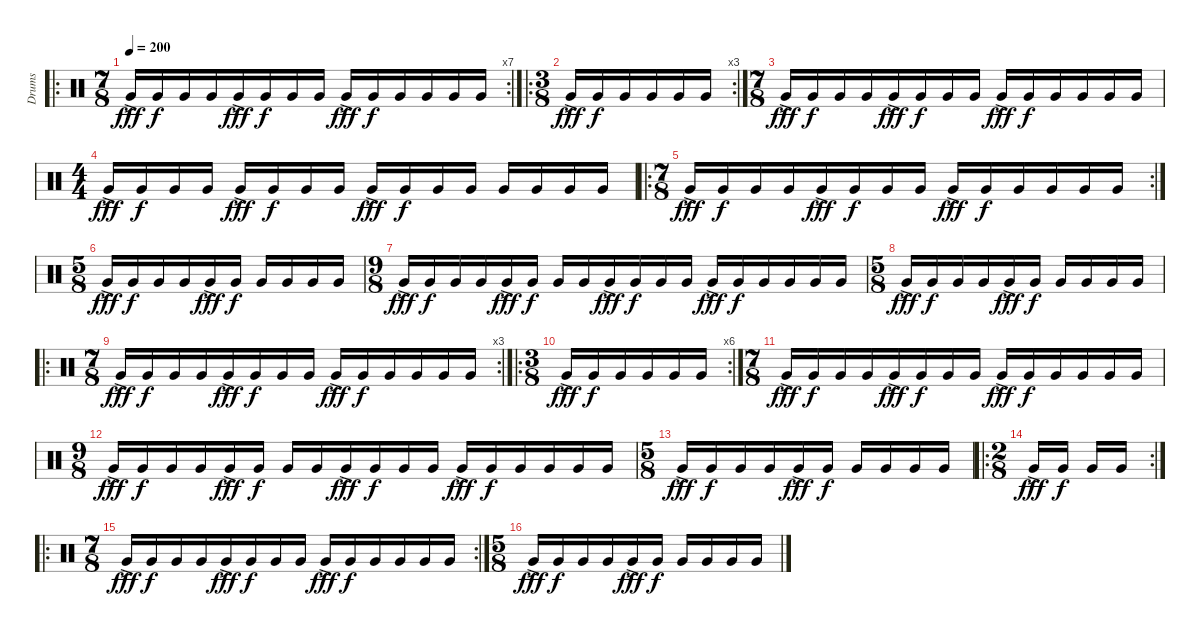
\track ("Drums" "Drums") {instrument percussion}
\staff {score}
\articulation defaults
\ro
\rc 7
\ts (7 8)
\tempo 200
\clef neutral
\ks c "Very Low Tom (hit)"{ac}.16{dy fff} "Very Low Tom (hit)".16{dy f} "Very Low Tom (hit)".16 "Very Low Tom (hit)".16 "Very Low Tom (hit)"{ac}.16{dy fff} "Very Low Tom (hit)".16{dy f} "Very Low Tom (hit)".16 "Very Low Tom (hit)".16 "Very Low Tom (hit)"{ac}.16{dy fff} "Very Low Tom (hit)".16{dy f} "Very Low Tom (hit)".16 "Very Low Tom (hit)".16 "Very Low Tom (hit)".16 "Very Low Tom (hit)".16
|
\ro
\rc 3
\ts (3 8)
"Very Low Tom (hit)"{ac}.16{dy fff} "Very Low Tom (hit)".16{dy f} "Very Low Tom (hit)".16 "Very Low Tom (hit)".16 "Very Low Tom (hit)".16 "Very Low Tom (hit)".16 |
\ts (7 8)
"Very Low Tom (hit)"{ac}.16{dy fff} "Very Low Tom (hit)".16{dy f} "Very Low Tom (hit)".16 "Very Low Tom (hit)".16 "Very Low Tom (hit)"{ac}.16{dy fff} "Very Low Tom (hit)".16{dy f} "Very Low Tom (hit)".16 "Very Low Tom (hit)".16 "Very Low Tom (hit)"{ac}.16{dy fff} "Very Low Tom (hit)".16{dy f} "Very Low Tom (hit)".16 "Very Low Tom (hit)".16 "Very Low Tom (hit)".16 "Very Low Tom (hit)".16 |
\ts (4 4)
"Very Low Tom (hit)"{ac}.16{dy fff} "Very Low Tom (hit)".16{dy f} "Very Low Tom (hit)".16 "Very Low Tom (hit)".16 "Very Low Tom (hit)"{ac}.16{dy fff} "Very Low Tom (hit)".16{dy f} "Very Low Tom (hit)".16 "Very Low Tom (hit)".16 "Very Low Tom (hit)"{ac}.16{dy fff} "Very Low Tom (hit)".16{dy f} "Very Low Tom (hit)".16 "Very Low Tom (hit)".16 "Very Low Tom (hit)".16 "Very Low Tom (hit)".16 "Very Low Tom (hit)".16 "Very Low Tom (hit)".16 |
\ro
\rc 2
\ts (7 8)
"Very Low Tom (hit)"{ac}.16{dy fff} "Very Low Tom (hit)".16{dy f} "Very Low Tom (hit)".16 "Very Low Tom (hit)".16 "Very Low Tom (hit)"{ac}.16{dy fff} "Very Low Tom (hit)".16{dy f} "Very Low Tom (hit)".16 "Very Low Tom (hit)".16 "Very Low Tom (hit)"{ac}.16{dy fff} "Very Low Tom (hit)".16{dy f} "Very Low Tom (hit)".16 "Very Low Tom (hit)".16 "Very Low Tom (hit)".16 "Very Low Tom (hit)".16 |
\ts (5 8)
"Very Low Tom (hit)"{ac}.16{dy fff} "Very Low Tom (hit)".16{dy f} "Very Low Tom (hit)".16 "Very Low Tom (hit)".16 "Very Low Tom (hit)"{ac}.16{dy fff} "Very Low Tom (hit)".16{dy f} "Very Low Tom (hit)".16 "Very Low Tom (hit)".16 "Very Low Tom (hit)".16 "Very Low Tom (hit)".16 |
\ts (9 8)
"Very Low Tom (hit)"{ac}.16{dy fff} "Very Low Tom (hit)".16{dy f} "Very Low Tom (hit)".16 "Very Low Tom (hit)".16 "Very Low Tom (hit)"{ac}.16{dy fff} "Very Low Tom (hit)".16{dy f} "Very Low Tom (hit)".16 "Very Low Tom (hit)".16 "Very Low Tom (hit)"{ac}.16{dy fff} "Very Low Tom (hit)".16{dy f} "Very Low Tom (hit)".16 "Very Low Tom (hit)".16 "Very Low Tom (hit)"{ac}.16{dy fff} "Very Low Tom (hit)".16{dy f} "Very Low Tom (hit)".16 "Very Low Tom (hit)".16 "Very Low Tom (hit)".16 "Very Low Tom (hit)".16 |
\ts (5 8)
"Very Low Tom (hit)"{ac}.16{dy fff} "Very Low Tom (hit)".16{dy f} "Very Low Tom (hit)".16 "Very Low Tom (hit)".16 "Very Low Tom (hit)"{ac}.16{dy fff} "Very Low Tom (hit)".16{dy f} "Very Low Tom (hit)".16 "Very Low Tom (hit)".16 "Very Low Tom (hit)".16 "Very Low Tom (hit)".16 |
\ro
\rc 3
\ts (7 8)
"Very Low Tom (hit)"{ac}.16{dy fff} "Very Low Tom (hit)".16{dy f} "Very Low Tom (hit)".16 "Very Low Tom (hit)".16 "Very Low Tom (hit)"{ac}.16{dy fff} "Very Low Tom (hit)".16{dy f} "Very Low Tom (hit)".16 "Very Low Tom (hit)".16 "Very Low Tom (hit)"{ac}.16{dy fff} "Very Low Tom (hit)".16{dy f} "Very Low Tom (hit)".16 "Very Low Tom (hit)".16 "Very Low Tom (hit)".16 "Very Low Tom (hit)".16 |
\ro
\rc 6
\ts (3 8)
"Very Low Tom (hit)"{ac}.16{dy fff} "Very Low Tom (hit)".16{dy f} "Very Low Tom (hit)".16 "Very Low Tom (hit)".16 "Very Low Tom (hit)".16 "Very Low Tom (hit)".16 |
\ts (7 8)
"Very Low Tom (hit)"{ac}.16{dy fff} "Very Low Tom (hit)".16{dy f} "Very Low Tom (hit)".16 "Very Low Tom (hit)".16 "Very Low Tom (hit)"{ac}.16{dy fff} "Very Low Tom (hit)".16{dy f} "Very Low Tom (hit)".16 "Very Low Tom (hit)".16 "Very Low Tom (hit)"{ac}.16{dy fff} "Very Low Tom (hit)".16{dy f} "Very Low Tom (hit)".16 "Very Low Tom (hit)".16 "Very Low Tom (hit)".16 "Very Low Tom (hit)".16 |
\ts (9 8)
"Very Low Tom (hit)"{ac}.16{dy fff} "Very Low Tom (hit)".16{dy f} "Very Low Tom (hit)".16 "Very Low Tom (hit)".16 "Very Low Tom (hit)"{ac}.16{dy fff} "Very Low Tom (hit)".16{dy f} "Very Low Tom (hit)".16 "Very Low Tom (hit)".16 "Very Low Tom (hit)"{ac}.16{dy fff} "Very Low Tom (hit)".16{dy f} "Very Low Tom (hit)".16 "Very Low Tom (hit)".16 "Very Low Tom (hit)"{ac}.16{dy fff} "Very Low Tom (hit)".16{dy f} "Very Low Tom (hit)".16 "Very Low Tom (hit)".16 "Very Low Tom (hit)".16 "Very Low Tom (hit)".16 |
\ts (5 8)
"Very Low Tom (hit)"{ac}.16{dy fff} "Very Low Tom (hit)".16{dy f} "Very Low Tom (hit)".16 "Very Low Tom (hit)".16 "Very Low Tom (hit)"{ac}.16{dy fff} "Very Low Tom (hit)".16{dy f} "Very Low Tom (hit)".16 "Very Low Tom (hit)".16 "Very Low Tom (hit)".16 "Very Low Tom (hit)".16 |
\ro
\rc 2
\ts (2 8)
"Very Low Tom (hit)"{ac}.16{dy fff} "Very Low Tom (hit)".16{dy f} "Very Low Tom (hit)".16 "Very Low Tom (hit)".16 |
\ro
\rc 2
\ts (7 8)
"Very Low Tom (hit)"{ac}.16{dy fff} "Very Low Tom (hit)".16{dy f} "Very Low Tom (hit)".16 "Very Low Tom (hit)".16 "Very Low Tom (hit)"{ac}.16{dy fff} "Very Low Tom (hit)".16{dy f} "Very Low Tom (hit)".16 "Very Low Tom (hit)".16 "Very Low Tom (hit)"{ac}.16{dy fff} "Very Low Tom (hit)".16{dy f} "Very Low Tom (hit)".16 "Very Low Tom (hit)".16 "Very Low Tom (hit)".16 "Very Low Tom (hit)".16 |
\ts (5 8)
"Very Low Tom (hit)"{ac}.16{dy fff} "Very Low Tom (hit)".16{dy f} "Very Low Tom (hit)".16 "Very Low Tom (hit)".16 "Very Low Tom (hit)"{ac}.16{dy fff} "Very Low Tom (hit)".16{dy f} "Very Low Tom (hit)".16 "Very Low Tom (hit)".16 "Very Low Tom (hit)".16 "Very Low Tom (hit)".16
